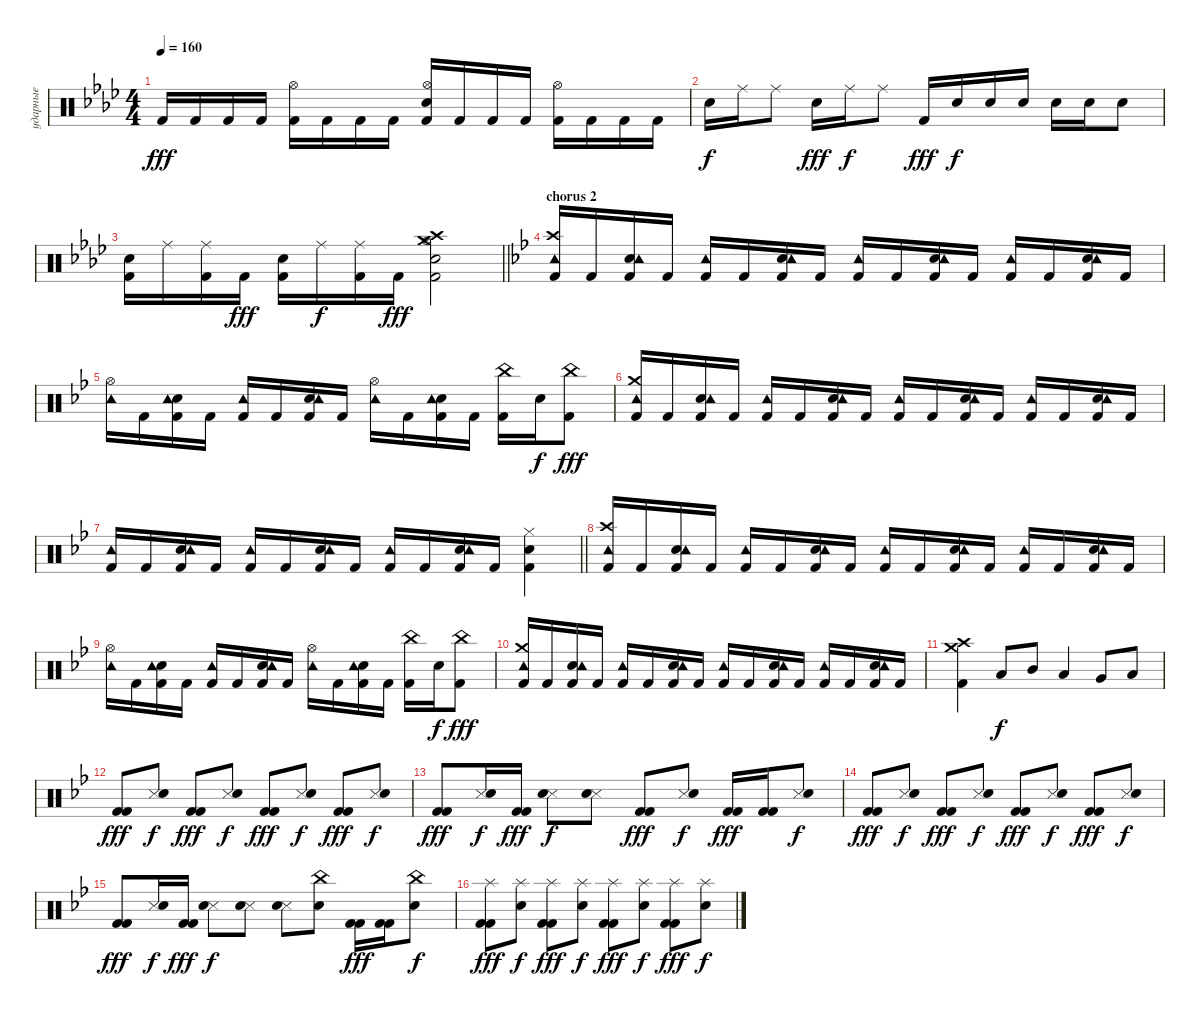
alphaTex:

\track ("ударные" "ударные") {instrument percussion}
\staff {score}
\articulation defaults
\ts (4 4)
\tempo 160
\clef neutral
\ks fminor "Kick (hit) 2".16{dy fff} "Kick (hit) 2".16 "Kick (hit) 2".16 "Kick (hit) 2".16
("Hi-Hat (open)" "Kick (hit) 2").16 "Kick (hit) 2".16 "Kick (hit) 2".16 "Kick (hit) 2".16 ("Electric Snare (hit)" "Hi-Hat (open)" "Kick (hit) 2").16 "Kick (hit) 2".16 "Kick (hit) 2".16 "Kick (hit) 2".16 ("Hi-Hat (open)" "Kick (hit) 2").16 "Kick (hit) 2".16 "Kick (hit) 2".16 "Kick (hit) 2".16 |
"Electric Snare (hit)".16{dy f} "Ride (middle)".16 "Ride (middle)".8 "Electric Snare (hit)".16{dy fff} "Ride (middle)".16{dy f} "Ride (middle)".8 "Kick (hit) 2".16{dy fff} "Electric Snare (hit)".16{dy f} "Electric Snare (hit)".16 "Electric Snare (hit)".16 "Electric Snare (hit)".16 "Electric Snare (hit)".16 "Electric Snare (hit)".8 |
\barLineRight lightlight
("Kick (hit) 2" "Electric Snare (hit)").16 "Ride (middle)".16 ("Kick (hit) 2" "Ride (middle)").16 "Kick (hit) 2".16{dy fff} ("Kick (hit) 2" "Electric Snare (hit)").16 "Ride (middle)".16{dy f} ("Kick (hit) 2" "Ride (middle)").16 "Kick (hit) 2".16{dy fff} ("Crash medium (hit)" "Crash high (hit)" "Electric Snare (hit)" "Hi-Hat (open)" "Kick (hit) 2").2 |
\section ("" "chorus 2")
\ks gminor
("Crash high (hit)" "Tambourine (hit)" "Kick (hit) 2").16 "Kick (hit) 2".16 ("Electric Snare (hit)" "Tambourine (hit)" "Kick (hit) 2").16 "Kick (hit) 2".16 ("Tambourine (hit)" "Kick (hit) 2").16 "Kick (hit) 2".16 ("Electric Snare (hit)" "Tambourine (hit)" "Kick (hit) 2").16 "Kick (hit) 2".16 ("Tambourine (hit)" "Kick (hit) 2").16 "Kick (hit) 2".16 ("Electric Snare (hit)" "Tambourine (hit)" "Kick (hit) 2").16 "Kick (hit) 2".16 ("Tambourine (hit)" "Kick (hit) 2").16 "Kick (hit) 2".16 ("Electric Snare (hit)" "Tambourine (hit)" "Kick (hit) 2").16 "Kick (hit) 2".16 |
("Hi-Hat (open)" "Tambourine (hit)").16 "Kick (hit) 2".16 ("Electric Snare (hit)" "Tambourine (hit)" "Kick (hit) 2").16 "Kick (hit) 2".16 ("Tambourine (hit)" "Kick (hit) 2").16 "Kick (hit) 2".16 ("Electric Snare (hit)" "Tambourine (hit)" "Kick (hit) 2").16 "Kick (hit) 2".16 ("Hi-Hat (open)" "Tambourine (hit)").16 "Kick (hit) 2".16 ("Electric Snare (hit)" "Tambourine (hit)" "Kick (hit) 2").16 "Kick (hit) 2".16 ("China (hit)" "Kick (hit) 2").16 "Electric Snare (hit)".16{dy f} ("China (hit)" "Kick (hit) 2").8{dy fff} |
("Crash medium (hit)" "Tambourine (hit)" "Kick (hit) 2").16 "Kick (hit) 2".16 ("Electric Snare (hit)" "Tambourine (hit)" "Kick (hit) 2").16 "Kick (hit) 2".16 ("Tambourine (hit)" "Kick (hit) 2").16 "Kick (hit) 2".16 ("Electric Snare (hit)" "Tambourine (hit)" "Kick (hit) 2").16 "Kick (hit) 2".16 ("Tambourine (hit)" "Kick (hit) 2").16 "Kick (hit) 2".16 ("Electric Snare (hit)" "Tambourine (hit)" "Kick (hit) 2").16 "Kick (hit) 2".16 ("Tambourine (hit)" "Kick (hit) 2").16 "Kick (hit) 2".16 ("Electric Snare (hit)" "Tambourine (hit)" "Kick (hit) 2").16 "Kick (hit) 2".16 |
\barLineRight lightlight
("Tambourine (hit)" "Kick (hit) 2").16 "Kick (hit) 2".16 ("Electric Snare (hit)" "Tambourine (hit)" "Kick (hit) 2").16 "Kick (hit) 2".16 ("Tambourine (hit)" "Kick (hit) 2").16 "Kick (hit) 2".16 ("Electric Snare (hit)" "Tambourine (hit)" "Kick (hit) 2").16 "Kick (hit) 2".16 ("Tambourine (hit)" "Kick (hit) 2").16 "Kick (hit) 2".16 ("Electric Snare (hit)" "Tambourine (hit)" "Kick (hit) 2").16 "Kick (hit) 2".16 ("Electric Snare (hit)" "Hi-Hat (closed)" "Kick (hit) 2").4 |
("Crash high (hit)" "Tambourine (hit)" "Kick (hit) 2").16 "Kick (hit) 2".16 ("Electric Snare (hit)" "Tambourine (hit)" "Kick (hit) 2").16 "Kick (hit) 2".16 ("Tambourine (hit)" "Kick (hit) 2").16 "Kick (hit) 2".16 ("Electric Snare (hit)" "Tambourine (hit)" "Kick (hit) 2").16 "Kick (hit) 2".16 ("Tambourine (hit)" "Kick (hit) 2").16 "Kick (hit) 2".16 ("Electric Snare (hit)" "Tambourine (hit)" "Kick (hit) 2").16 "Kick (hit) 2".16 ("Tambourine (hit)" "Kick (hit) 2").16 "Kick (hit) 2".16 ("Electric Snare (hit)" "Tambourine (hit)" "Kick (hit) 2").16 "Kick (hit) 2".16 |
("Hi-Hat (open)" "Tambourine (hit)").16 "Kick (hit) 2".16 ("Electric Snare (hit)" "Tambourine (hit)" "Kick (hit) 2").16 "Kick (hit) 2".16 ("Tambourine (hit)" "Kick (hit) 2").16 "Kick (hit) 2".16 ("Electric Snare (hit)" "Tambourine (hit)" "Kick (hit) 2").16 "Kick (hit) 2".16 ("Hi-Hat (open)" "Tambourine (hit)").16 "Kick (hit) 2".16 ("Electric Snare (hit)" "Tambourine (hit)" "Kick (hit) 2").16 "Kick (hit) 2".16 ("China (hit)" "Kick (hit) 2").16 "Electric Snare (hit)".16{dy f} ("China (hit)" "Kick (hit) 2").8{dy fff} |
("Crash medium (hit)" "Tambourine (hit)" "Kick (hit) 2").16 "Kick (hit) 2".16 ("Electric Snare (hit)" "Tambourine (hit)" "Kick (hit) 2").16 "Kick (hit) 2".16 ("Tambourine (hit)" "Kick (hit) 2").16 "Kick (hit) 2".16 ("Electric Snare (hit)" "Tambourine (hit)" "Kick (hit) 2").16 "Kick (hit) 2".16 ("Tambourine (hit)" "Kick (hit) 2").16 "Kick (hit) 2".16 ("Electric Snare (hit)" "Tambourine (hit)" "Kick (hit) 2").16 "Kick (hit) 2".16 ("Tambourine (hit)" "Kick (hit) 2").16 "Kick (hit) 2".16 ("Electric Snare (hit)" "Tambourine (hit)" "Kick (hit) 2").16 "Kick (hit) 2".16 |
("Crash high (hit)" "Crash medium (hit)" "Kick (hit) 2").4 "Low Tom (hit)".8{dy f} "Mid Tom (hit)".8 "Low Tom (hit)".4 "Very Low Tom (hit)".8 "Low Floor Tom (hit)".8 |
("Kick (hit) 2" "Kick (hit) 2").8{dy fff} ("Snare (side stick) 3" "Electric Snare (hit)").8{dy f} ("Kick (hit) 2" "Kick (hit) 2").8{dy fff} ("Snare (side stick) 3" "Electric Snare (hit)").8{dy f} ("Kick (hit) 2" "Kick (hit) 2").8{dy fff} ("Snare (side stick) 3" "Electric Snare (hit)").8{dy f} ("Kick (hit) 2" "Kick (hit) 2").8{dy fff} ("Snare (side stick) 3" "Electric Snare (hit)").8{dy f} |
("Kick (hit) 2" "Kick (hit) 2").8{dy fff} ("Snare (side stick) 3" "Electric Snare (hit)").16{dy f} ("Kick (hit) 2" "Kick (hit) 2").16{dy fff} ("Snare (side stick) 3" "Electric Snare (hit)").8{dy f} ("Snare (side stick) 3" "Electric Snare (hit)").8 ("Kick (hit) 2" "Kick (hit) 2").8{dy fff} ("Snare (side stick) 3" "Electric Snare (hit)").8{dy f} ("Kick (hit) 2" "Kick (hit) 2").16{dy fff} ("Kick (hit) 2" "Kick (hit) 2").16 ("Snare (side stick) 3" "Electric Snare (hit)").8{dy f} |
("Kick (hit) 2" "Kick (hit) 2").8{dy fff} ("Snare (side stick) 3" "Electric Snare (hit)").8{dy f} ("Kick (hit) 2" "Kick (hit) 2").8{dy fff} ("Snare (side stick) 3" "Electric Snare (hit)").8{dy f} ("Kick (hit) 2" "Kick (hit) 2").8{dy fff} ("Snare (side stick) 3" "Electric Snare (hit)").8{dy f} ("Kick (hit) 2" "Kick (hit) 2").8{dy fff} ("Snare (side stick) 3" "Electric Snare (hit)").8{dy f} |
("Kick (hit) 2" "Kick (hit) 2").8{dy fff} ("Snare (side stick) 3" "Electric Snare (hit)").16{dy f} ("Kick (hit) 2" "Kick (hit) 2").16{dy fff} ("Snare (side stick) 3" "Electric Snare (hit)").8{dy f} ("Snare (side stick) 3" "Electric Snare (hit)").8 ("Snare (side stick) 3" "Electric Snare (hit)").8 ("China (hit)" "Electric Snare (hit)").8 ("Kick (hit) 2" "Kick (hit) 2").16{dy fff} ("Kick (hit) 2" "Kick (hit) 2").16 ("China (hit)" "Electric Snare (hit)").8{dy f} |
("Splash (hit)" "Kick (hit) 2" "Kick (hit) 2").8{dy fff} ("Splash (hit)" "Electric Snare (hit)").8{dy f} ("Splash (hit)" "Kick (hit) 2" "Kick (hit) 2").8{dy fff} ("Splash (hit)" "Electric Snare (hit)").8{dy f} ("Splash (hit)" "Kick (hit) 2" "Kick (hit) 2").8{dy fff} ("Splash (hit)" "Electric Snare (hit)").8{dy f} ("Splash (hit)" "Kick (hit) 2" "Kick (hit) 2").8{dy fff} ("Splash (hit)" "Electric Snare (hit)").8{dy f}
